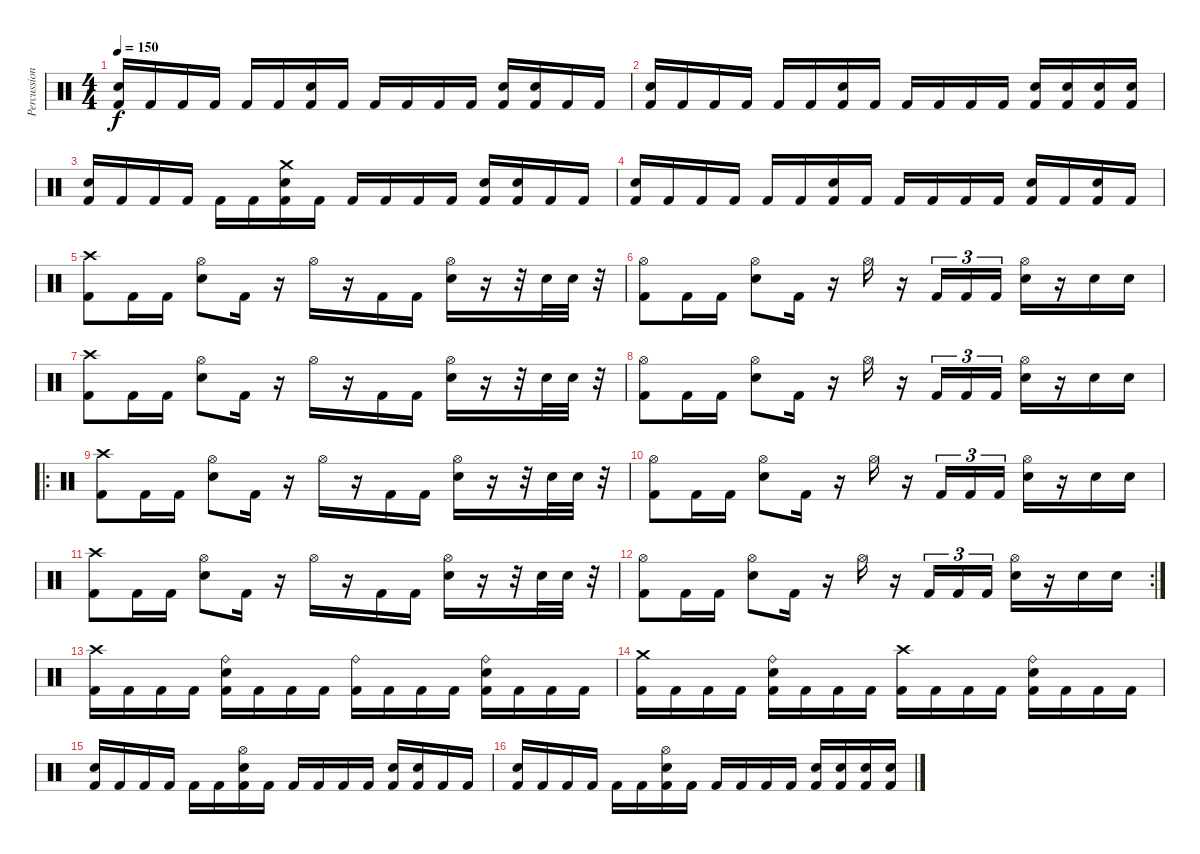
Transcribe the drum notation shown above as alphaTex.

\track ("Percussion" "Percussion") {instrument percussion}
\staff {score}
\articulation defaults
\ts (4 4)
\tempo 150
\clef neutral
\ks c
("Snare (hit) 2" "Kick (hit) 2").16{dy f} "Kick (hit) 2".16 "Kick (hit) 2".16 "Kick (hit) 2".16 "Kick (hit) 2".16 "Kick (hit) 2".16 ("Snare (hit) 2" "Kick (hit) 2").16 "Kick (hit) 2".16 "Kick (hit) 2".16 "Kick (hit) 2".16 "Kick (hit) 2".16 "Kick (hit) 2".16 ("Snare (hit) 2" "Kick (hit) 2").16 ("Snare (hit) 2" "Kick (hit) 2").16 "Kick (hit) 2".16 "Kick (hit) 2".16 |
("Snare (hit) 2" "Kick (hit) 2").16 "Kick (hit) 2".16 "Kick (hit) 2".16 "Kick (hit) 2".16 "Kick (hit) 2".16 "Kick (hit) 2".16 ("Snare (hit) 2" "Kick (hit) 2").16 "Kick (hit) 2".16 "Kick (hit) 2".16 "Kick (hit) 2".16 "Kick (hit) 2".16 "Kick (hit) 2".16 ("Snare (hit) 2" "Kick (hit) 2").16 ("Snare (hit) 2" "Kick (hit) 2").16 ("Snare (hit) 2" "Kick (hit) 2").16 ("Snare (hit) 2" "Kick (hit) 2").16 |
("Snare (hit) 2" "Kick (hit) 2").16 "Kick (hit) 2".16 "Kick (hit) 2".16 "Kick (hit) 2".16 "Kick (hit) 2".16 "Kick (hit) 2".16 ("Crash medium (hit)" "Snare (hit) 2" "Kick (hit) 2").16 "Kick (hit) 2".16 "Kick (hit) 2".16 "Kick (hit) 2".16 "Kick (hit) 2".16 "Kick (hit) 2".16 ("Snare (hit) 2" "Kick (hit) 2").16 ("Snare (hit) 2" "Kick (hit) 2").16 "Kick (hit) 2".16 "Kick (hit) 2".16 |
("Snare (hit) 2" "Kick (hit) 2").16 "Kick (hit) 2".16 "Kick (hit) 2".16 "Kick (hit) 2".16 "Kick (hit) 2".16 "Kick (hit) 2".16 ("Snare (hit) 2" "Kick (hit) 2").16 "Kick (hit) 2".16 "Kick (hit) 2".16 "Kick (hit) 2".16 "Kick (hit) 2".16 "Kick (hit) 2".16 ("Snare (hit) 2" "Kick (hit) 2").16 "Kick (hit) 2".16 ("Snare (hit) 2" "Kick (hit) 2").16 "Kick (hit) 2".16 |
("Crash high (hit)" "Kick (hit) 2").8 "Kick (hit) 2".16 "Kick (hit) 2".16 ("Hi-Hat (open)" "Snare (hit) 2").8 "Kick (hit) 2".16 r.16 "Hi-Hat (open)".16 r.16 "Kick (hit) 2".16 "Kick (hit) 2".16 ("Hi-Hat (open)" "Snare (hit) 2").16 r.16 r.32 "Snare (hit) 2".32 "Snare (hit) 2".32 r.32 |
("Hi-Hat (open)" "Kick (hit) 2").8 "Kick (hit) 2".16 "Kick (hit) 2".16 ("Hi-Hat (open)" "Snare (hit) 2").8 "Kick (hit) 2".16 r.16 "Hi-Hat (open)".16 r.16 "Kick (hit) 2".16{tu (3 2)} "Kick (hit) 2".16{tu (3 2)} "Kick (hit) 2".16{tu (3 2)} ("Hi-Hat (open)" "Snare (hit) 2").16 r.16 "Snare (hit) 2".16 "Snare (hit) 2".16 |
("Crash high (hit)" "Kick (hit) 2").8 "Kick (hit) 2".16 "Kick (hit) 2".16 ("Hi-Hat (open)" "Snare (hit) 2").8 "Kick (hit) 2".16 r.16 "Hi-Hat (open)".16 r.16 "Kick (hit) 2".16 "Kick (hit) 2".16 ("Hi-Hat (open)" "Snare (hit) 2").16 r.16 r.32 "Snare (hit) 2".32 "Snare (hit) 2".32 r.32 |
("Hi-Hat (open)" "Kick (hit) 2").8 "Kick (hit) 2".16 "Kick (hit) 2".16 ("Hi-Hat (open)" "Snare (hit) 2").8 "Kick (hit) 2".16 r.16 "Hi-Hat (open)".16 r.16 "Kick (hit) 2".16{tu (3 2)} "Kick (hit) 2".16{tu (3 2)} "Kick (hit) 2".16{tu (3 2)} ("Hi-Hat (open)" "Snare (hit) 2").16 r.16 "Snare (hit) 2".16 "Snare (hit) 2".16 |
\ro
("Crash high (hit)" "Kick (hit) 2").8 "Kick (hit) 2".16 "Kick (hit) 2".16 ("Hi-Hat (open)" "Snare (hit) 2").8 "Kick (hit) 2".16 r.16 "Hi-Hat (open)".16 r.16 "Kick (hit) 2".16 "Kick (hit) 2".16 ("Hi-Hat (open)" "Snare (hit) 2").16 r.16 r.32 "Snare (hit) 2".32 "Snare (hit) 2".32 r.32 |
("Hi-Hat (open)" "Kick (hit) 2").8 "Kick (hit) 2".16 "Kick (hit) 2".16 ("Hi-Hat (open)" "Snare (hit) 2").8 "Kick (hit) 2".16 r.16 "Hi-Hat (open)".16 r.16 "Kick (hit) 2".16{tu (3 2)} "Kick (hit) 2".16{tu (3 2)} "Kick (hit) 2".16{tu (3 2)} ("Hi-Hat (open)" "Snare (hit) 2").16 r.16 "Snare (hit) 2".16 "Snare (hit) 2".16 |
("Crash high (hit)" "Kick (hit) 2").8 "Kick (hit) 2".16 "Kick (hit) 2".16 ("Hi-Hat (open)" "Snare (hit) 2").8 "Kick (hit) 2".16 r.16 "Hi-Hat (open)".16 r.16 "Kick (hit) 2".16 "Kick (hit) 2".16 ("Hi-Hat (open)" "Snare (hit) 2").16 r.16 r.32 "Snare (hit) 2".32 "Snare (hit) 2".32 r.32 |
\rc 2
("Hi-Hat (open)" "Kick (hit) 2").8 "Kick (hit) 2".16 "Kick (hit) 2".16 ("Hi-Hat (open)" "Snare (hit) 2").8 "Kick (hit) 2".16 r.16 "Hi-Hat (open)".16 r.16 "Kick (hit) 2".16{tu (3 2)} "Kick (hit) 2".16{tu (3 2)} "Kick (hit) 2".16{tu (3 2)} ("Hi-Hat (open)" "Snare (hit) 2").16 r.16 "Snare (hit) 2".16 "Snare (hit) 2".16 |
("Crash high (hit)" "Kick (hit) 2").16 "Kick (hit) 2".16 "Kick (hit) 2".16 "Kick (hit) 2".16 ("Ride (bell)" "Snare (hit) 2" "Kick (hit) 2").16 "Kick (hit) 2".16 "Kick (hit) 2".16 "Kick (hit) 2".16 ("Ride (bell)" "Kick (hit) 2").16 "Kick (hit) 2".16 "Kick (hit) 2".16 "Kick (hit) 2".16 ("Ride (bell)" "Snare (hit) 2" "Kick (hit) 2").16 "Kick (hit) 2".16 "Kick (hit) 2".16 "Kick (hit) 2".16 |
("Crash medium (hit)" "Kick (hit) 2").16 "Kick (hit) 2".16 "Kick (hit) 2".16 "Kick (hit) 2".16 ("Ride (bell)" "Snare (hit) 2" "Kick (hit) 2").16 "Kick (hit) 2".16 "Kick (hit) 2".16 "Kick (hit) 2".16 ("Crash high (hit)" "Kick (hit) 2").16 "Kick (hit) 2".16 "Kick (hit) 2".16 "Kick (hit) 2".16 ("Ride (bell)" "Snare (hit) 2" "Kick (hit) 2").16 "Kick (hit) 2".16 "Kick (hit) 2".16 "Kick (hit) 2".16 |
("Snare (hit) 2" "Kick (hit) 2").16 "Kick (hit) 2".16 "Kick (hit) 2".16 "Kick (hit) 2".16 "Kick (hit) 2".16 "Kick (hit) 2".16 ("Hi-Hat (open)" "Snare (hit) 2" "Kick (hit) 2").16 "Kick (hit) 2".16 "Kick (hit) 2".16 "Kick (hit) 2".16 "Kick (hit) 2".16 "Kick (hit) 2".16 ("Snare (hit) 2" "Kick (hit) 2").16 ("Snare (hit) 2" "Kick (hit) 2").16 "Kick (hit) 2".16 "Kick (hit) 2".16 |
("Snare (hit) 2" "Kick (hit) 2").16 "Kick (hit) 2".16 "Kick (hit) 2".16 "Kick (hit) 2".16 "Kick (hit) 2".16 "Kick (hit) 2".16 ("Hi-Hat (open)" "Snare (hit) 2" "Kick (hit) 2").16 "Kick (hit) 2".16 "Kick (hit) 2".16 "Kick (hit) 2".16 "Kick (hit) 2".16 "Kick (hit) 2".16 ("Snare (hit) 2" "Kick (hit) 2").16 ("Snare (hit) 2" "Kick (hit) 2").16 ("Snare (hit) 2" "Kick (hit) 2").16 ("Snare (hit) 2" "Kick (hit) 2").16
